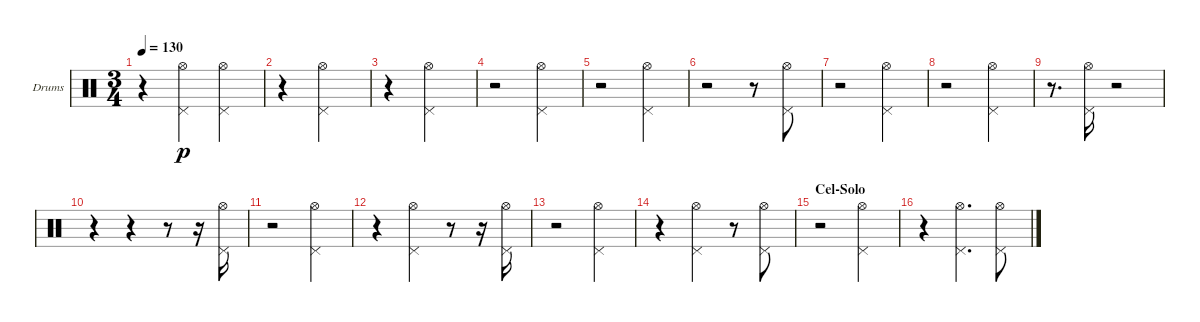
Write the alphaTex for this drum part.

\bracketExtendMode groupsimilarinstruments
\firstSystemTrackNameOrientation horizontal
\otherSystemsTrackNameOrientation horizontal
\track ("HH" "Drums") {instrument percussion}
\staff {score}
\articulation defaults
\ts (3 4)
\tempo 130
\clef neutral
\ks c
r.4{dy p} ("Pedal Hi-Hat (hit)" "Hi-Hat (open)").4 ("Pedal Hi-Hat (hit)" "Hi-Hat (open)").4 |
r.4 ("Pedal Hi-Hat (hit)" "Hi-Hat (open)").2 |
r.4 ("Pedal Hi-Hat (hit)" "Hi-Hat (open)").2 |
r.2 ("Pedal Hi-Hat (hit)" "Hi-Hat (open)").4 |
r.2 ("Pedal Hi-Hat (hit)" "Hi-Hat (open)").4 |
r.2 r.8 ("Pedal Hi-Hat (hit)" "Hi-Hat (open)").8 |
r.2 ("Pedal Hi-Hat (hit)" "Hi-Hat (open)").4 |
r.2 ("Pedal Hi-Hat (hit)" "Hi-Hat (open)").4 |
r.8{d} ("Pedal Hi-Hat (hit)" "Hi-Hat (open)").16 r.2 |
r.4 r.4 r.8 r.16 ("Pedal Hi-Hat (hit)" "Hi-Hat (open)").16 |
r.2 ("Pedal Hi-Hat (hit)" "Hi-Hat (open)").4 |
r.4 ("Pedal Hi-Hat (hit)" "Hi-Hat (open)").4 r.8 r.16 ("Pedal Hi-Hat (hit)" "Hi-Hat (open)").16 |
r.2 ("Pedal Hi-Hat (hit)" "Hi-Hat (open)").4 |
r.4 ("Pedal Hi-Hat (hit)" "Hi-Hat (open)").4 r.8 ("Pedal Hi-Hat (hit)" "Hi-Hat (open)").8 |
\section ("" "Cel-Solo")
r.2 ("Pedal Hi-Hat (hit)" "Hi-Hat (open)").4 |
r.4 ("Pedal Hi-Hat (hit)" "Hi-Hat (open)").4{d} ("Pedal Hi-Hat (hit)" "Hi-Hat (open)").8
